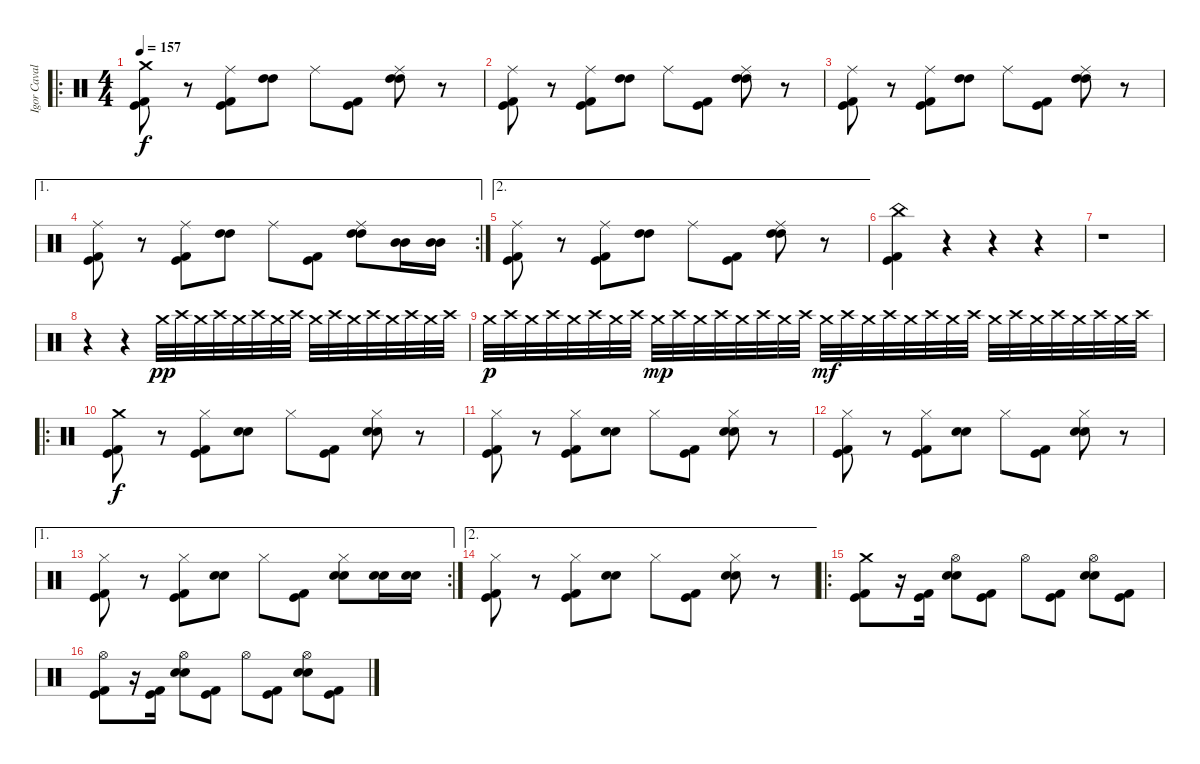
\track ("Igor Cavalera" "Igor Caval") {instrument percussion}
\staff {score}
\articulation defaults
\ro
\ts (4 4)
\tempo 157
\clef neutral
\ks c
("Crash medium (hit)" "Kick (hit) 2" "Kick (hit)").8{dy f} r.8 ("Ride (middle)" "Kick (hit) 2" "Kick (hit)").8 ("High Tom (hit)" "High Tom (hit)").8 "Ride (middle)".8 ("Kick (hit) 2" "Kick (hit)").8 ("Ride (middle)" "High Tom (hit)" "High Tom (hit)").8 r.8 |
("Ride (middle)" "Kick (hit) 2" "Kick (hit)").8 r.8 ("Ride (middle)" "Kick (hit) 2" "Kick (hit)").8 ("High Tom (hit)" "High Tom (hit)").8 "Ride (middle)".8 ("Kick (hit) 2" "Kick (hit)").8 ("Ride (middle)" "High Tom (hit)" "High Tom (hit)").8 r.8 |
("Ride (middle)" "Kick (hit) 2" "Kick (hit)").8 r.8 ("Ride (middle)" "Kick (hit) 2" "Kick (hit)").8 ("High Tom (hit)" "High Tom (hit)").8 "Ride (middle)".8 ("Kick (hit) 2" "Kick (hit)").8 ("Ride (middle)" "High Tom (hit)" "High Tom (hit)").8 r.8 |
\ae 1
\rc 2
("Ride (middle)" "Kick (hit) 2" "Kick (hit)").8 r.8 ("Ride (middle)" "Kick (hit) 2" "Kick (hit)").8 ("High Tom (hit)" "High Tom (hit)").8 "Ride (middle)".8 ("Kick (hit) 2" "Kick (hit)").8 ("Ride (middle)" "High Tom (hit)" "High Tom (hit)").8 ("Mid Tom (hit)" "Mid Tom (hit)").16 ("Mid Tom (hit)" "Mid Tom (hit)").16 |
\ae 2
("Ride (middle)" "Kick (hit) 2" "Kick (hit)").8 r.8 ("Ride (middle)" "Kick (hit) 2" "Kick (hit)").8 ("High Tom (hit)" "High Tom (hit)").8 "Ride (middle)".8 ("Kick (hit) 2" "Kick (hit)").8 ("Ride (middle)" "High Tom (hit)" "High Tom (hit)").8 r.8 |
("China (hit)" "Kick (hit) 2" "Kick (hit)").4 r.4 r.4 r.4 |
r.1 |
r.4 r.4 "Crash medium (hit)".32{dy pp} "Crash high (hit)".32 "Crash medium (hit)".32 "Crash high (hit)".32 "Crash medium (hit)".32 "Crash high (hit)".32 "Crash medium (hit)".32 "Crash high (hit)".32 "Crash medium (hit)".32 "Crash high (hit)".32 "Crash medium (hit)".32 "Crash high (hit)".32 "Crash medium (hit)".32 "Crash high (hit)".32 "Crash medium (hit)".32 "Crash high (hit)".32 |
"Crash medium (hit)".32{dy p} "Crash high (hit)".32 "Crash medium (hit)".32 "Crash high (hit)".32 "Crash medium (hit)".32 "Crash high (hit)".32 "Crash medium (hit)".32 "Crash high (hit)".32 "Crash medium (hit)".32{dy mp} "Crash high (hit)".32 "Crash medium (hit)".32 "Crash high (hit)".32 "Crash medium (hit)".32 "Crash high (hit)".32 "Crash medium (hit)".32 "Crash high (hit)".32 "Crash medium (hit)".32{dy mf} "Crash high (hit)".32 "Crash medium (hit)".32 "Crash high (hit)".32 "Crash medium (hit)".32 "Crash high (hit)".32 "Crash medium (hit)".32 "Crash high (hit)".32 "Crash medium (hit)".32 "Crash high (hit)".32 "Crash medium (hit)".32 "Crash high (hit)".32 "Crash medium (hit)".32 "Crash high (hit)".32 "Crash medium (hit)".32 "Crash high (hit)".32 |
\ro
("Crash medium (hit)" "Kick (hit) 2" "Kick (hit)").8{dy f} r.8 ("Hi-Hat (closed)" "Kick (hit) 2" "Kick (hit)").8 ("Electric Snare (hit)" "Snare (hit) 2").8 "Hi-Hat (closed)".8 ("Kick (hit) 2" "Kick (hit)").8 ("Hi-Hat (closed)" "Electric Snare (hit)" "Snare (hit) 2").8 r.8 |
("Hi-Hat (closed)" "Kick (hit) 2" "Kick (hit)").8 r.8 ("Hi-Hat (closed)" "Kick (hit) 2" "Kick (hit)").8 ("Electric Snare (hit)" "Snare (hit) 2").8 "Hi-Hat (closed)".8 ("Kick (hit) 2" "Kick (hit)").8 ("Hi-Hat (closed)" "Electric Snare (hit)" "Snare (hit) 2").8 r.8 |
("Hi-Hat (closed)" "Kick (hit) 2" "Kick (hit)").8 r.8 ("Hi-Hat (closed)" "Kick (hit) 2" "Kick (hit)").8 ("Electric Snare (hit)" "Snare (hit) 2").8 "Hi-Hat (closed)".8 ("Kick (hit) 2" "Kick (hit)").8 ("Hi-Hat (closed)" "Electric Snare (hit)" "Snare (hit) 2").8 r.8 |
\ae 1
\rc 2
("Hi-Hat (closed)" "Kick (hit) 2" "Kick (hit)").8 r.8 ("Hi-Hat (closed)" "Kick (hit) 2" "Kick (hit)").8 ("Electric Snare (hit)" "Snare (hit) 2").8 "Hi-Hat (closed)".8 ("Kick (hit) 2" "Kick (hit)").8 ("Hi-Hat (closed)" "Electric Snare (hit)" "Snare (hit) 2").8 ("Electric Snare (hit)" "Snare (hit) 2").16 ("Electric Snare (hit)" "Snare (hit) 2").16 |
\ae 2
("Hi-Hat (closed)" "Kick (hit) 2" "Kick (hit)").8 r.8 ("Hi-Hat (closed)" "Kick (hit) 2" "Kick (hit)").8 ("Electric Snare (hit)" "Snare (hit) 2").8 "Hi-Hat (closed)".8 ("Kick (hit) 2" "Kick (hit)").8 ("Hi-Hat (closed)" "Electric Snare (hit)" "Snare (hit) 2").8 r.8 |
\ro
("Crash medium (hit)" "Kick (hit) 2" "Kick (hit)").8 r.16 ("Kick (hit) 2" "Kick (hit)").16 ("Hi-Hat (open)" "Snare (hit) 2" "Electric Snare (hit)").8 ("Kick (hit) 2" "Kick (hit)").8 "Hi-Hat (open)".8 ("Kick (hit) 2" "Kick (hit)").8 ("Hi-Hat (open)" "Snare (hit) 2" "Electric Snare (hit)").8 ("Kick (hit) 2" "Kick (hit)").8 |
("Hi-Hat (open)" "Kick (hit) 2" "Kick (hit)").8 r.16 ("Kick (hit) 2" "Kick (hit)").16 ("Hi-Hat (open)" "Snare (hit) 2" "Electric Snare (hit)").8 ("Kick (hit) 2" "Kick (hit)").8 "Hi-Hat (open)".8 ("Kick (hit) 2" "Kick (hit)").8 ("Hi-Hat (open)" "Snare (hit) 2" "Electric Snare (hit)").8 ("Kick (hit) 2" "Kick (hit)").8
